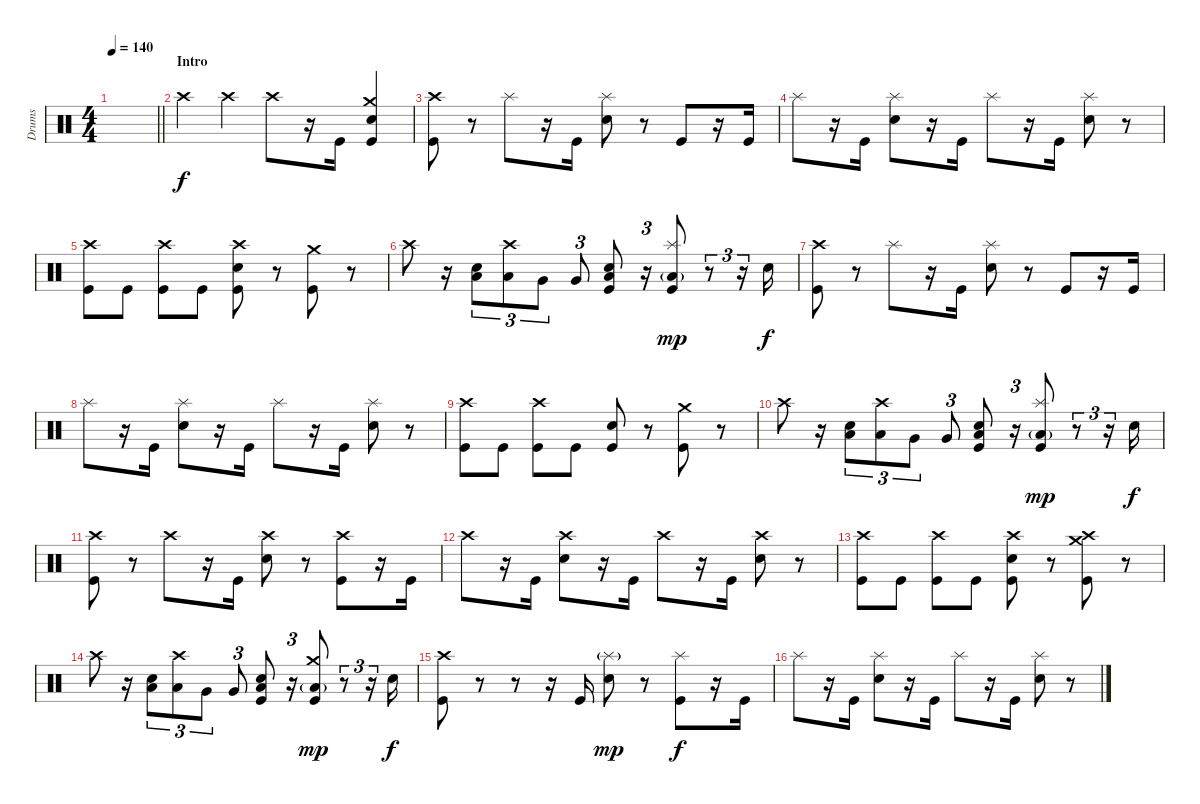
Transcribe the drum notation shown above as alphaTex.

\track ("Drums" "Drums") {instrument percussion}
\staff {score}
\articulation defaults
\ts (4 4)
\tempo 140
\clef neutral
\barLineRight lightlight
\ks c
|
\section ("" "Intro")
"Crash high (hit)".4 "Crash high (hit)".4 "Crash high (hit)".8 r.16 "Kick (hit)".16 ("Crash medium (hit)" "Electric Snare (hit)" "Kick (hit)").4 |
("Crash high (hit)" "Kick (hit)").8 r.8 "Splash (hit)".8 r.16 "Kick (hit)".16 ("Splash (hit)" "Electric Snare (hit)").8 r.8 "Kick (hit)".8 r.16 "Kick (hit)".16 |
"Splash (hit)".8 r.16 "Kick (hit)".16 ("Splash (hit)" "Electric Snare (hit)").8 r.16 "Kick (hit)".16 "Splash (hit)".8 r.16 "Kick (hit)".16 ("Splash (hit)" "Electric Snare (hit)").8 r.8 |
("Crash high (hit)" "Kick (hit)").8 "Kick (hit)".8 ("Crash high (hit)" "Kick (hit)").8 "Kick (hit)".8 ("Crash high (hit)" "Electric Snare (hit)" "Kick (hit)").8 r.8 ("Crash medium (hit)" "Kick (hit)").8 r.8 |
"Crash high (hit)".8 r.16 ("Low Tom (hit)" "Electric Snare (hit)").8{tu (3 2)} ("Crash high (hit)" "Low Tom (hit)").8{tu (3 2)} "Very Low Tom (hit)".8{tu (3 2)} "Very Low Tom (hit)".8{tu (3 2)} ("Low Tom (hit)" "Snare (hit) 2" "Kick (hit)").8 r.16{tu (3 2)} ("Splash (hit)" "Low Floor Tom (hit)"{g} "Kick (hit)").8{dy mp} r.8{tu (3 2)} r.16{tu (3 2)} "Electric Snare (hit)".16{dy f} |
("Crash high (hit)" "Kick (hit)").8 r.8 "Splash (hit)".8 r.16 "Kick (hit)".16 ("Splash (hit)" "Electric Snare (hit)").8 r.8 "Kick (hit)".8 r.16 "Kick (hit)".16 |
"Splash (hit)".8 r.16 "Kick (hit)".16 ("Splash (hit)" "Electric Snare (hit)").8 r.16 "Kick (hit)".16 "Splash (hit)".8 r.16 "Kick (hit)".16 ("Splash (hit)" "Electric Snare (hit)").8 r.8 |
("Crash high (hit)" "Kick (hit)").8 "Kick (hit)".8 ("Crash high (hit)" "Kick (hit)").8 "Kick (hit)".8 ("Electric Snare (hit)" "Kick (hit)").8 r.8 ("Crash medium (hit)" "Kick (hit)").8 r.8 |
"Crash high (hit)".8 r.16 ("Low Tom (hit)" "Electric Snare (hit)").8{tu (3 2)} ("Crash high (hit)" "Low Tom (hit)").8{tu (3 2)} "Very Low Tom (hit)".8{tu (3 2)} "Very Low Tom (hit)".8{tu (3 2)} ("Low Tom (hit)" "Snare (hit) 2" "Kick (hit)").8 r.16{tu (3 2)} ("Splash (hit)" "Low Floor Tom (hit)"{g} "Kick (hit)").8{dy mp} r.8{tu (3 2)} r.16{tu (3 2)} "Electric Snare (hit)".16{dy f} |
("Crash high (hit)" "Kick (hit)").8 r.8 "Crash high (hit)".8 r.16 "Kick (hit)".16 ("Crash high (hit)" "Electric Snare (hit)").8 r.8 ("Crash high (hit)" "Kick (hit)").8 r.16 "Kick (hit)".16 |
"Crash high (hit)".8 r.16 "Kick (hit)".16 ("Crash high (hit)" "Electric Snare (hit)").8 r.16 "Kick (hit)".16 "Crash high (hit)".8 r.16 "Kick (hit)".16 ("Crash high (hit)" "Electric Snare (hit)").8 r.8 |
("Crash high (hit)" "Kick (hit)").8 "Kick (hit)".8 ("Crash high (hit)" "Kick (hit)").8 "Kick (hit)".8 ("Crash high (hit)" "Electric Snare (hit)" "Kick (hit)").8 r.8 ("Crash high (hit)" "Crash medium (hit)" "Kick (hit)").8 r.8 |
"Crash high (hit)".8 r.16 ("Low Tom (hit)" "Electric Snare (hit)").8{tu (3 2)} ("Crash high (hit)" "Low Tom (hit)").8{tu (3 2)} "Very Low Tom (hit)".8{tu (3 2)} "Very Low Tom (hit)".8{tu (3 2)} ("Low Tom (hit)" "Snare (hit) 2" "Kick (hit)").8 r.16{tu (3 2)} ("Crash medium (hit)" "Low Floor Tom (hit)"{g} "Kick (hit)").8{dy mp} r.8{tu (3 2)} r.16{tu (3 2)} "Electric Snare (hit)".16{dy f} |
("Crash high (hit)" "Kick (hit)").8 r.8 r.8 r.16 "Kick (hit)".16 ("Splash (hit)"{g} "Electric Snare (hit)").8{dy mp} r.8 ("Splash (hit)" "Kick (hit)").8{dy f} r.16 "Kick (hit)".16 |
"Splash (hit)".8 r.16 "Kick (hit)".16 ("Splash (hit)" "Electric Snare (hit)").8 r.16 "Kick (hit)".16 "Splash (hit)".8 r.16 "Kick (hit)".16 ("Splash (hit)" "Electric Snare (hit)").8 r.8
